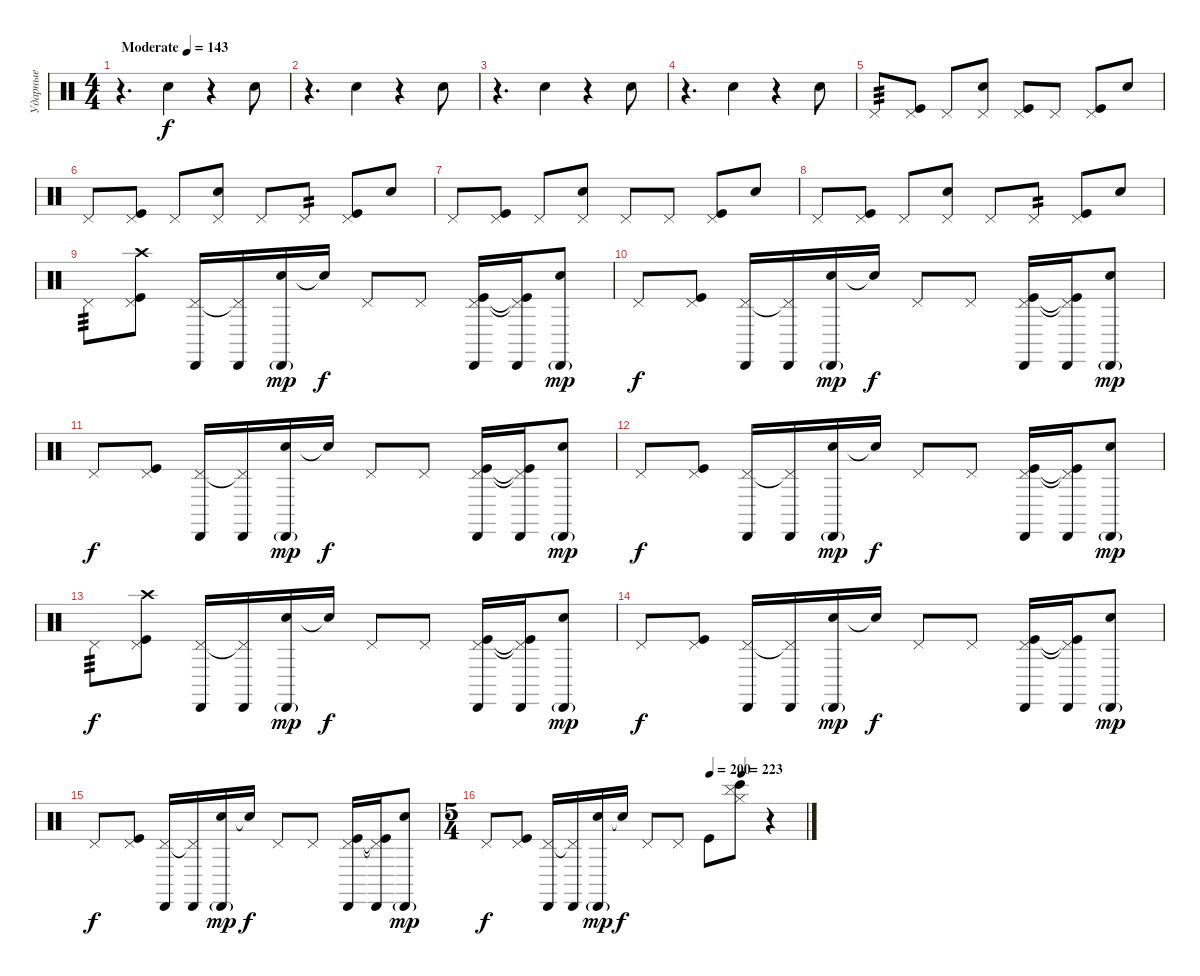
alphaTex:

\track ("Ударные" "Ударные") {instrument percussion}
\staff {score}
\articulation defaults
\ts (4 4)
\tempo (143 "Moderate")
\clef neutral
\ks c
r.4{d dy f} "Snare (hit) 2".4 r.4 "Snare (hit) 2".8 |
r.4{d} "Snare (hit) 2".4 r.4 "Snare (hit) 2".8 |
r.4{d} "Snare (hit) 2".4 r.4 "Snare (hit) 2".8 |
r.4{d} "Snare (hit) 2".4 r.4 "Snare (hit) 2".8 |
"Pedal Hi-Hat (hit)".8{tp 3} ("Kick (hit)" "Pedal Hi-Hat (hit)").8 "Pedal Hi-Hat (hit)".8 ("Snare (hit) 2" "Pedal Hi-Hat (hit)").8 ("Kick (hit)" "Pedal Hi-Hat (hit)").8 "Pedal Hi-Hat (hit)".8 ("Kick (hit)" "Pedal Hi-Hat (hit)").8 "Snare (hit) 2".8 |
"Pedal Hi-Hat (hit)".8 ("Kick (hit)" "Pedal Hi-Hat (hit)").8 "Pedal Hi-Hat (hit)".8 ("Snare (hit) 2" "Pedal Hi-Hat (hit)").8 "Pedal Hi-Hat (hit)".8 "Pedal Hi-Hat (hit)".8{tp 2} ("Kick (hit)" "Pedal Hi-Hat (hit)").8 "Snare (hit) 2".8 |
"Pedal Hi-Hat (hit)".8 ("Kick (hit)" "Pedal Hi-Hat (hit)").8 "Pedal Hi-Hat (hit)".8 ("Snare (hit) 2" "Pedal Hi-Hat (hit)").8 "Pedal Hi-Hat (hit)".8 "Pedal Hi-Hat (hit)".8 ("Kick (hit)" "Pedal Hi-Hat (hit)").8 "Snare (hit) 2".8 |
"Pedal Hi-Hat (hit)".8 ("Kick (hit)" "Pedal Hi-Hat (hit)").8 "Pedal Hi-Hat (hit)".8 ("Snare (hit) 2" "Pedal Hi-Hat (hit)").8 "Pedal Hi-Hat (hit)".8 "Pedal Hi-Hat (hit)".8{tp 2} ("Kick (hit)" "Pedal Hi-Hat (hit)").8 "Snare (hit) 2".8 |
"Pedal Hi-Hat (hit)".8{tp 3} ("Crash high (hit)" "Kick (hit)" "Pedal Hi-Hat (hit)").8 ("Pedal Hi-Hat (hit)" "Cabasa (hit)").16 ("Pedal Hi-Hat (hit)"{t} "Cabasa (hit)").16 ("Snare (hit) 2" "Cabasa (hit)"{g}).16{dy mp} "Snare (hit) 2"{t}.16{dy f} "Pedal Hi-Hat (hit)".8 "Pedal Hi-Hat (hit)".8 ("Kick (hit)" "Pedal Hi-Hat (hit)" "Cabasa (hit)").16 ("Kick (hit)"{t} "Pedal Hi-Hat (hit)"{t} "Cabasa (hit)").16 ("Snare (hit) 2" "Cabasa (hit)"{g}).8{dy mp} |
"Pedal Hi-Hat (hit)".8{dy f} ("Kick (hit)" "Pedal Hi-Hat (hit)").8 ("Pedal Hi-Hat (hit)" "Cabasa (hit)").16 ("Pedal Hi-Hat (hit)"{t} "Cabasa (hit)").16 ("Snare (hit) 2" "Cabasa (hit)"{g}).16{dy mp} "Snare (hit) 2"{t}.16{dy f} "Pedal Hi-Hat (hit)".8 "Pedal Hi-Hat (hit)".8 ("Kick (hit)" "Pedal Hi-Hat (hit)" "Cabasa (hit)").16 ("Kick (hit)"{t} "Pedal Hi-Hat (hit)"{t} "Cabasa (hit)").16 ("Snare (hit) 2" "Cabasa (hit)"{g}).8{dy mp} |
"Pedal Hi-Hat (hit)".8{dy f} ("Kick (hit)" "Pedal Hi-Hat (hit)").8 ("Pedal Hi-Hat (hit)" "Cabasa (hit)").16 ("Pedal Hi-Hat (hit)"{t} "Cabasa (hit)").16 ("Snare (hit) 2" "Cabasa (hit)"{g}).16{dy mp} "Snare (hit) 2"{t}.16{dy f} "Pedal Hi-Hat (hit)".8 "Pedal Hi-Hat (hit)".8 ("Kick (hit)" "Pedal Hi-Hat (hit)" "Cabasa (hit)").16 ("Kick (hit)"{t} "Pedal Hi-Hat (hit)"{t} "Cabasa (hit)").16 ("Snare (hit) 2" "Cabasa (hit)"{g}).8{dy mp} |
"Pedal Hi-Hat (hit)".8{dy f} ("Kick (hit)" "Pedal Hi-Hat (hit)").8 ("Pedal Hi-Hat (hit)" "Cabasa (hit)").16 ("Pedal Hi-Hat (hit)"{t} "Cabasa (hit)").16 ("Snare (hit) 2" "Cabasa (hit)"{g}).16{dy mp} "Snare (hit) 2"{t}.16{dy f} "Pedal Hi-Hat (hit)".8 "Pedal Hi-Hat (hit)".8 ("Kick (hit)" "Pedal Hi-Hat (hit)" "Cabasa (hit)").16 ("Kick (hit)"{t} "Pedal Hi-Hat (hit)"{t} "Cabasa (hit)").16 ("Snare (hit) 2" "Cabasa (hit)"{g}).8{dy mp} |
"Pedal Hi-Hat (hit)".8{tp 3 dy f} ("Crash high (hit)" "Kick (hit)" "Pedal Hi-Hat (hit)").8 ("Pedal Hi-Hat (hit)" "Cabasa (hit)").16 ("Pedal Hi-Hat (hit)"{t} "Cabasa (hit)").16 ("Snare (hit) 2" "Cabasa (hit)"{g}).16{dy mp} "Snare (hit) 2"{t}.16{dy f} "Pedal Hi-Hat (hit)".8 "Pedal Hi-Hat (hit)".8 ("Kick (hit)" "Pedal Hi-Hat (hit)" "Cabasa (hit)").16 ("Kick (hit)"{t} "Pedal Hi-Hat (hit)"{t} "Cabasa (hit)").16 ("Snare (hit) 2" "Cabasa (hit)"{g}).8{dy mp} |
"Pedal Hi-Hat (hit)".8{dy f} ("Kick (hit)" "Pedal Hi-Hat (hit)").8 ("Pedal Hi-Hat (hit)" "Cabasa (hit)").16 ("Pedal Hi-Hat (hit)"{t} "Cabasa (hit)").16 ("Snare (hit) 2" "Cabasa (hit)"{g}).16{dy mp} "Snare (hit) 2"{t}.16{dy f} "Pedal Hi-Hat (hit)".8 "Pedal Hi-Hat (hit)".8 ("Kick (hit)" "Pedal Hi-Hat (hit)" "Cabasa (hit)").16 ("Kick (hit)"{t} "Pedal Hi-Hat (hit)"{t} "Cabasa (hit)").16 ("Snare (hit) 2" "Cabasa (hit)"{g}).8{dy mp} |
"Pedal Hi-Hat (hit)".8{dy f} ("Kick (hit)" "Pedal Hi-Hat (hit)").8 ("Pedal Hi-Hat (hit)" "Cabasa (hit)").16 ("Pedal Hi-Hat (hit)"{t} "Cabasa (hit)").16 ("Snare (hit) 2" "Cabasa (hit)"{g}).16{dy mp} "Snare (hit) 2"{t}.16{dy f} "Pedal Hi-Hat (hit)".8 "Pedal Hi-Hat (hit)".8 ("Kick (hit)" "Pedal Hi-Hat (hit)" "Cabasa (hit)").16 ("Kick (hit)"{t} "Pedal Hi-Hat (hit)"{t} "Cabasa (hit)").16 ("Snare (hit) 2" "Cabasa (hit)"{g}).8{dy mp} |
\ts (5 4)
\tempo (200 0.7)
\tempo (223 0.8)
"Pedal Hi-Hat (hit)".8{dy f} ("Kick (hit)" "Pedal Hi-Hat (hit)").8 ("Pedal Hi-Hat (hit)" "Cabasa (hit)").16 ("Pedal Hi-Hat (hit)"{t} "Cabasa (hit)").16 ("Snare (hit) 2" "Cabasa (hit)"{g}).16{dy mp} "Snare (hit) 2"{t}.16{dy f} "Pedal Hi-Hat (hit)".8 "Pedal Hi-Hat (hit)".8 "Kick (hit)".8 ("Cymbal (hit)" "Bongo High (hit)" "Hi-Hat (closed)").8 r.4
